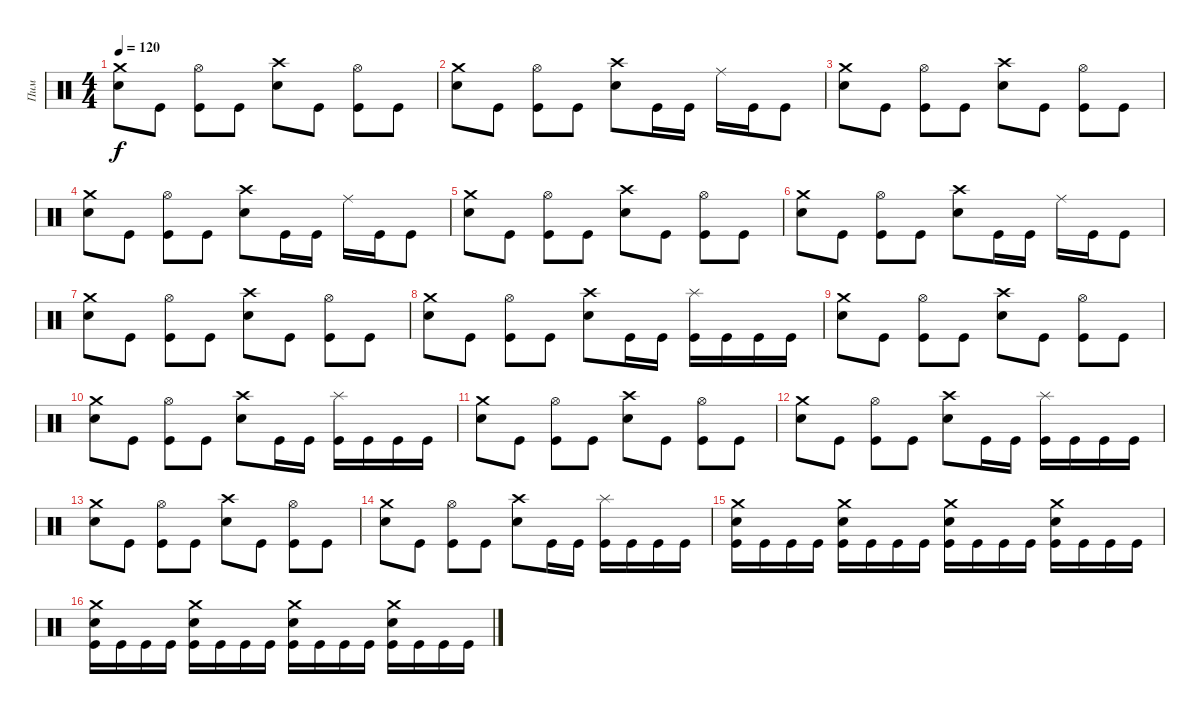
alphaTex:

\track ("Пим" "Пим") {instrument percussion}
\staff {score}
\articulation defaults
\ts (4 4)
\tempo 120
\clef neutral
\ks c
("Crash medium (hit)" "Snare (hit) 2").8{dy f} "Kick (hit)".8 ("Hi-Hat (open)" "Kick (hit)").8 "Kick (hit)".8 ("Crash high (hit)" "Snare (hit) 2").8 "Kick (hit)".8 ("Hi-Hat (open)" "Kick (hit)").8 "Kick (hit)".8 |
("Crash medium (hit)" "Snare (hit) 2").8 "Kick (hit)".8 ("Hi-Hat (open)" "Kick (hit)").8 "Kick (hit)".8 ("Crash high (hit)" "Snare (hit) 2").8 "Kick (hit)".16 "Kick (hit)".16 "Ride (middle)".16 "Kick (hit)".16 "Kick (hit)".8 |
("Crash medium (hit)" "Snare (hit) 2").8 "Kick (hit)".8 ("Hi-Hat (open)" "Kick (hit)").8 "Kick (hit)".8 ("Crash high (hit)" "Snare (hit) 2").8 "Kick (hit)".8 ("Hi-Hat (open)" "Kick (hit)").8 "Kick (hit)".8 |
("Crash medium (hit)" "Snare (hit) 2").8 "Kick (hit)".8 ("Hi-Hat (open)" "Kick (hit)").8 "Kick (hit)".8 ("Crash high (hit)" "Snare (hit) 2").8 "Kick (hit)".16 "Kick (hit)".16 "Ride (middle)".16 "Kick (hit)".16 "Kick (hit)".8 |
("Crash medium (hit)" "Snare (hit) 2").8 "Kick (hit)".8 ("Hi-Hat (open)" "Kick (hit)").8 "Kick (hit)".8 ("Crash high (hit)" "Snare (hit) 2").8 "Kick (hit)".8 ("Hi-Hat (open)" "Kick (hit)").8 "Kick (hit)".8 |
("Crash medium (hit)" "Snare (hit) 2").8 "Kick (hit)".8 ("Hi-Hat (open)" "Kick (hit)").8 "Kick (hit)".8 ("Crash high (hit)" "Snare (hit) 2").8 "Kick (hit)".16 "Kick (hit)".16 "Ride (middle)".16 "Kick (hit)".16 "Kick (hit)".8 |
("Crash medium (hit)" "Snare (hit) 2").8 "Kick (hit)".8 ("Hi-Hat (open)" "Kick (hit)").8 "Kick (hit)".8 ("Crash high (hit)" "Snare (hit) 2").8 "Kick (hit)".8 ("Hi-Hat (open)" "Kick (hit)").8 "Kick (hit)".8 |
("Crash medium (hit)" "Snare (hit) 2").8 "Kick (hit)".8 ("Hi-Hat (open)" "Kick (hit)").8 "Kick (hit)".8 ("Crash high (hit)" "Snare (hit) 2").8 "Kick (hit)".16 "Kick (hit)".16 ("Splash (hit)" "Kick (hit)").16 "Kick (hit)".16 "Kick (hit)".16 "Kick (hit)".16 |
("Crash medium (hit)" "Snare (hit) 2").8 "Kick (hit)".8 ("Hi-Hat (open)" "Kick (hit)").8 "Kick (hit)".8 ("Crash high (hit)" "Snare (hit) 2").8 "Kick (hit)".8 ("Hi-Hat (open)" "Kick (hit)").8 "Kick (hit)".8 |
("Crash medium (hit)" "Snare (hit) 2").8 "Kick (hit)".8 ("Hi-Hat (open)" "Kick (hit)").8 "Kick (hit)".8 ("Crash high (hit)" "Snare (hit) 2").8 "Kick (hit)".16 "Kick (hit)".16 ("Splash (hit)" "Kick (hit)").16 "Kick (hit)".16 "Kick (hit)".16 "Kick (hit)".16 |
("Crash medium (hit)" "Snare (hit) 2").8 "Kick (hit)".8 ("Hi-Hat (open)" "Kick (hit)").8 "Kick (hit)".8 ("Crash high (hit)" "Snare (hit) 2").8 "Kick (hit)".8 ("Hi-Hat (open)" "Kick (hit)").8 "Kick (hit)".8 |
("Crash medium (hit)" "Snare (hit) 2").8 "Kick (hit)".8 ("Hi-Hat (open)" "Kick (hit)").8 "Kick (hit)".8 ("Crash high (hit)" "Snare (hit) 2").8 "Kick (hit)".16 "Kick (hit)".16 ("Splash (hit)" "Kick (hit)").16 "Kick (hit)".16 "Kick (hit)".16 "Kick (hit)".16 |
("Crash medium (hit)" "Snare (hit) 2").8 "Kick (hit)".8 ("Hi-Hat (open)" "Kick (hit)").8 "Kick (hit)".8 ("Crash high (hit)" "Snare (hit) 2").8 "Kick (hit)".8 ("Hi-Hat (open)" "Kick (hit)").8 "Kick (hit)".8 |
("Crash medium (hit)" "Snare (hit) 2").8 "Kick (hit)".8 ("Hi-Hat (open)" "Kick (hit)").8 "Kick (hit)".8 ("Crash high (hit)" "Snare (hit) 2").8 "Kick (hit)".16 "Kick (hit)".16 ("Splash (hit)" "Kick (hit)").16 "Kick (hit)".16 "Kick (hit)".16 "Kick (hit)".16 |
("Crash medium (hit)" "Snare (hit) 2" "Kick (hit)").16 "Kick (hit)".16 "Kick (hit)".16 "Kick (hit)".16 ("Crash medium (hit)" "Snare (hit) 2" "Kick (hit)").16 "Kick (hit)".16 "Kick (hit)".16 "Kick (hit)".16 ("Crash medium (hit)" "Snare (hit) 2" "Kick (hit)").16 "Kick (hit)".16 "Kick (hit)".16 "Kick (hit)".16 ("Crash medium (hit)" "Snare (hit) 2" "Kick (hit)").16 "Kick (hit)".16 "Kick (hit)".16 "Kick (hit)".16 |
("Crash medium (hit)" "Snare (hit) 2" "Kick (hit)").16 "Kick (hit)".16 "Kick (hit)".16 "Kick (hit)".16 ("Crash medium (hit)" "Snare (hit) 2" "Kick (hit)").16 "Kick (hit)".16 "Kick (hit)".16 "Kick (hit)".16 ("Crash medium (hit)" "Snare (hit) 2" "Kick (hit)").16 "Kick (hit)".16 "Kick (hit)".16 "Kick (hit)".16 ("Crash medium (hit)" "Snare (hit) 2" "Kick (hit)").16 "Kick (hit)".16 "Kick (hit)".16 "Kick (hit)".16
